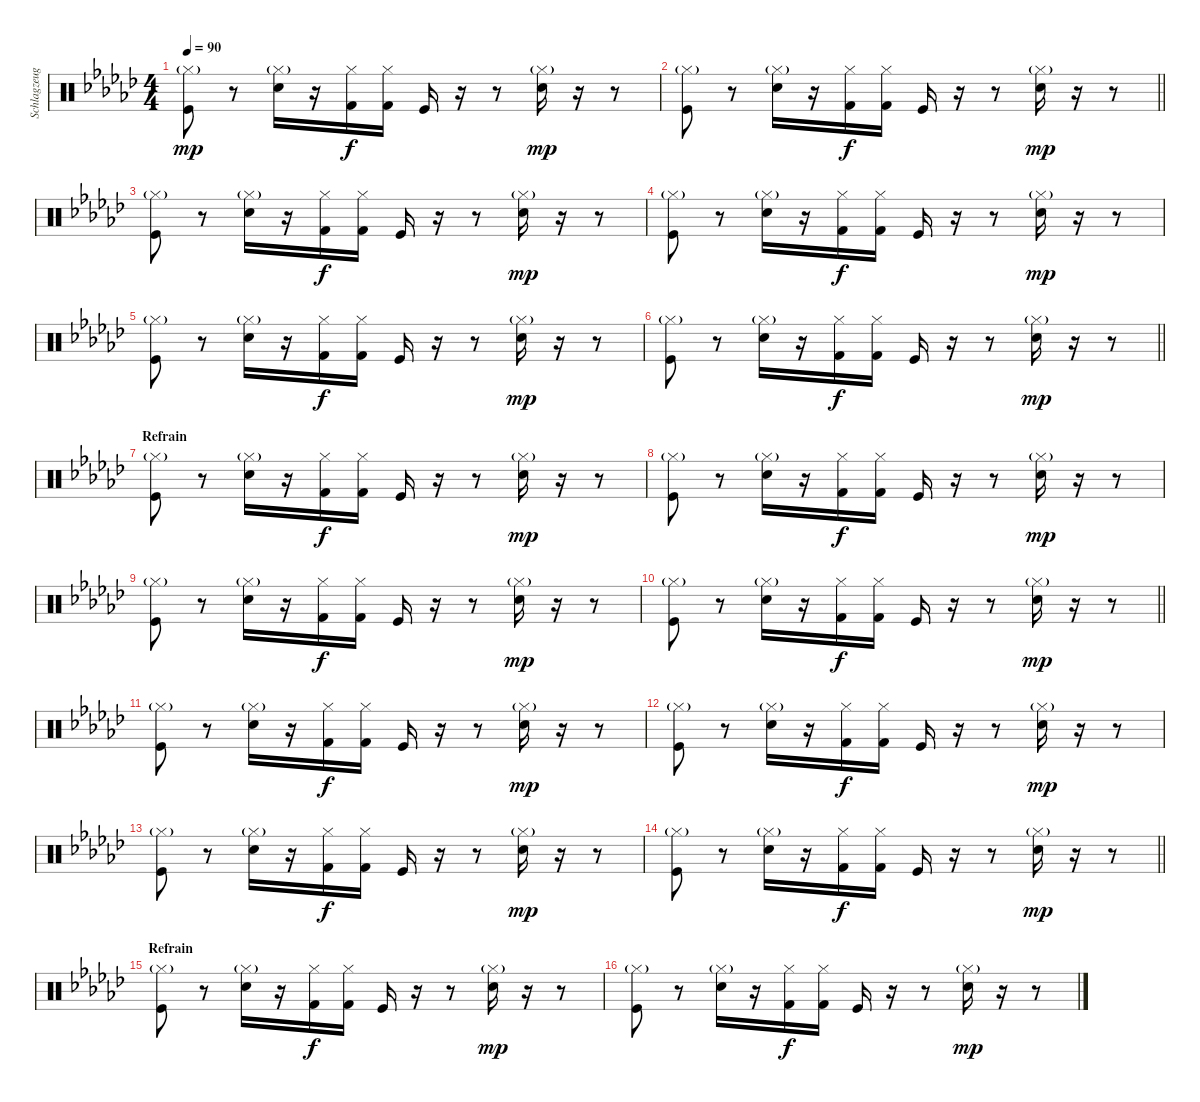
\track ("Schlagzeug" "Schlagzeug") {instrument percussion}
\staff {score}
\articulation defaults
\ts (4 4)
\tempo 90
\clef neutral
\ks ebminor
("Hi-Hat (closed)"{g} "Kick (hit)").8{dy mp} r.8 ("Hi-Hat (closed)"{g} "Electric Snare (hit)").16 r.16 ("Hi-Hat (closed)" "Kick (hit) 2").16{dy f} ("Hi-Hat (closed)" "Kick (hit) 2").16 "Kick (hit)".16 r.16 r.8 ("Hi-Hat (closed)"{g} "Electric Snare (hit)").16{dy mp} r.16 r.8 |
\barLineRight lightlight
("Hi-Hat (closed)"{g} "Kick (hit)").8 r.8 ("Hi-Hat (closed)"{g} "Electric Snare (hit)").16 r.16 ("Hi-Hat (closed)" "Kick (hit) 2").16{dy f} ("Hi-Hat (closed)" "Kick (hit) 2").16 "Kick (hit)".16 r.16 r.8 ("Hi-Hat (closed)"{g} "Electric Snare (hit)").16{dy mp} r.16 r.8 |
("Hi-Hat (closed)"{g} "Kick (hit)").8 r.8 ("Hi-Hat (closed)"{g} "Electric Snare (hit)").16 r.16 ("Hi-Hat (closed)" "Kick (hit) 2").16{dy f} ("Hi-Hat (closed)" "Kick (hit) 2").16 "Kick (hit)".16 r.16 r.8 ("Hi-Hat (closed)"{g} "Electric Snare (hit)").16{dy mp} r.16 r.8 |
("Hi-Hat (closed)"{g} "Kick (hit)").8 r.8 ("Hi-Hat (closed)"{g} "Electric Snare (hit)").16 r.16 ("Hi-Hat (closed)" "Kick (hit) 2").16{dy f} ("Hi-Hat (closed)" "Kick (hit) 2").16 "Kick (hit)".16 r.16 r.8 ("Hi-Hat (closed)"{g} "Electric Snare (hit)").16{dy mp} r.16 r.8 |
("Hi-Hat (closed)"{g} "Kick (hit)").8 r.8 ("Hi-Hat (closed)"{g} "Electric Snare (hit)").16 r.16 ("Hi-Hat (closed)" "Kick (hit) 2").16{dy f} ("Hi-Hat (closed)" "Kick (hit) 2").16 "Kick (hit)".16 r.16 r.8 ("Hi-Hat (closed)"{g} "Electric Snare (hit)").16{dy mp} r.16 r.8 |
\barLineRight lightlight
("Hi-Hat (closed)"{g} "Kick (hit)").8 r.8 ("Hi-Hat (closed)"{g} "Electric Snare (hit)").16 r.16 ("Hi-Hat (closed)" "Kick (hit) 2").16{dy f} ("Hi-Hat (closed)" "Kick (hit) 2").16 "Kick (hit)".16 r.16 r.8 ("Hi-Hat (closed)"{g} "Electric Snare (hit)").16{dy mp} r.16 r.8 |
\section ("" "Refrain")
("Hi-Hat (closed)"{g} "Kick (hit)").8 r.8 ("Hi-Hat (closed)"{g} "Electric Snare (hit)").16 r.16 ("Hi-Hat (closed)" "Kick (hit) 2").16{dy f} ("Hi-Hat (closed)" "Kick (hit) 2").16 "Kick (hit)".16 r.16 r.8 ("Hi-Hat (closed)"{g} "Electric Snare (hit)").16{dy mp} r.16 r.8 |
("Hi-Hat (closed)"{g} "Kick (hit)").8 r.8 ("Hi-Hat (closed)"{g} "Electric Snare (hit)").16 r.16 ("Hi-Hat (closed)" "Kick (hit) 2").16{dy f} ("Hi-Hat (closed)" "Kick (hit) 2").16 "Kick (hit)".16 r.16 r.8 ("Hi-Hat (closed)"{g} "Electric Snare (hit)").16{dy mp} r.16 r.8 |
("Hi-Hat (closed)"{g} "Kick (hit)").8 r.8 ("Hi-Hat (closed)"{g} "Electric Snare (hit)").16 r.16 ("Hi-Hat (closed)" "Kick (hit) 2").16{dy f} ("Hi-Hat (closed)" "Kick (hit) 2").16 "Kick (hit)".16 r.16 r.8 ("Hi-Hat (closed)"{g} "Electric Snare (hit)").16{dy mp} r.16 r.8 |
\barLineRight lightlight
("Hi-Hat (closed)"{g} "Kick (hit)").8 r.8 ("Hi-Hat (closed)"{g} "Electric Snare (hit)").16 r.16 ("Hi-Hat (closed)" "Kick (hit) 2").16{dy f} ("Hi-Hat (closed)" "Kick (hit) 2").16 "Kick (hit)".16 r.16 r.8 ("Hi-Hat (closed)"{g} "Electric Snare (hit)").16{dy mp} r.16 r.8 |
("Hi-Hat (closed)"{g} "Kick (hit)").8 r.8 ("Hi-Hat (closed)"{g} "Electric Snare (hit)").16 r.16 ("Hi-Hat (closed)" "Kick (hit) 2").16{dy f} ("Hi-Hat (closed)" "Kick (hit) 2").16 "Kick (hit)".16 r.16 r.8 ("Hi-Hat (closed)"{g} "Electric Snare (hit)").16{dy mp} r.16 r.8 |
("Hi-Hat (closed)"{g} "Kick (hit)").8 r.8 ("Hi-Hat (closed)"{g} "Electric Snare (hit)").16 r.16 ("Hi-Hat (closed)" "Kick (hit) 2").16{dy f} ("Hi-Hat (closed)" "Kick (hit) 2").16 "Kick (hit)".16 r.16 r.8 ("Hi-Hat (closed)"{g} "Electric Snare (hit)").16{dy mp} r.16 r.8 |
("Hi-Hat (closed)"{g} "Kick (hit)").8 r.8 ("Hi-Hat (closed)"{g} "Electric Snare (hit)").16 r.16 ("Hi-Hat (closed)" "Kick (hit) 2").16{dy f} ("Hi-Hat (closed)" "Kick (hit) 2").16 "Kick (hit)".16 r.16 r.8 ("Hi-Hat (closed)"{g} "Electric Snare (hit)").16{dy mp} r.16 r.8 |
\barLineRight lightlight
("Hi-Hat (closed)"{g} "Kick (hit)").8 r.8 ("Hi-Hat (closed)"{g} "Electric Snare (hit)").16 r.16 ("Hi-Hat (closed)" "Kick (hit) 2").16{dy f} ("Hi-Hat (closed)" "Kick (hit) 2").16 "Kick (hit)".16 r.16 r.8 ("Hi-Hat (closed)"{g} "Electric Snare (hit)").16{dy mp} r.16 r.8 |
\section ("" "Refrain")
("Hi-Hat (closed)"{g} "Kick (hit)").8 r.8 ("Hi-Hat (closed)"{g} "Electric Snare (hit)").16 r.16 ("Hi-Hat (closed)" "Kick (hit) 2").16{dy f} ("Hi-Hat (closed)" "Kick (hit) 2").16 "Kick (hit)".16 r.16 r.8 ("Hi-Hat (closed)"{g} "Electric Snare (hit)").16{dy mp} r.16 r.8 |
("Hi-Hat (closed)"{g} "Kick (hit)").8 r.8 ("Hi-Hat (closed)"{g} "Electric Snare (hit)").16 r.16 ("Hi-Hat (closed)" "Kick (hit) 2").16{dy f} ("Hi-Hat (closed)" "Kick (hit) 2").16 "Kick (hit)".16 r.16 r.8 ("Hi-Hat (closed)"{g} "Electric Snare (hit)").16{dy mp} r.16 r.8
